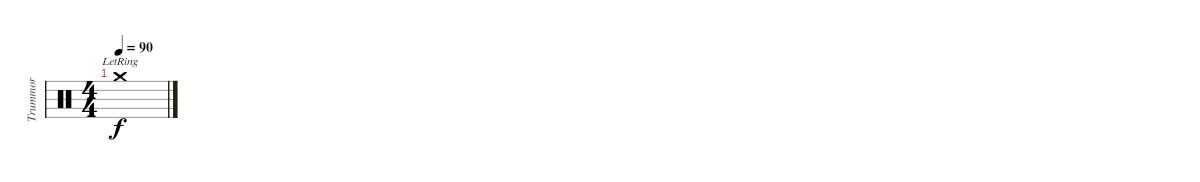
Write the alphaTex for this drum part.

\track ("Trummor" "Trummor") {instrument percussion}
\staff {score}
\articulation defaults
\ts (4 4)
\tempo 90
\clef neutral
\ks c "Crash medium (hit)"{lr}.1{dy f}
